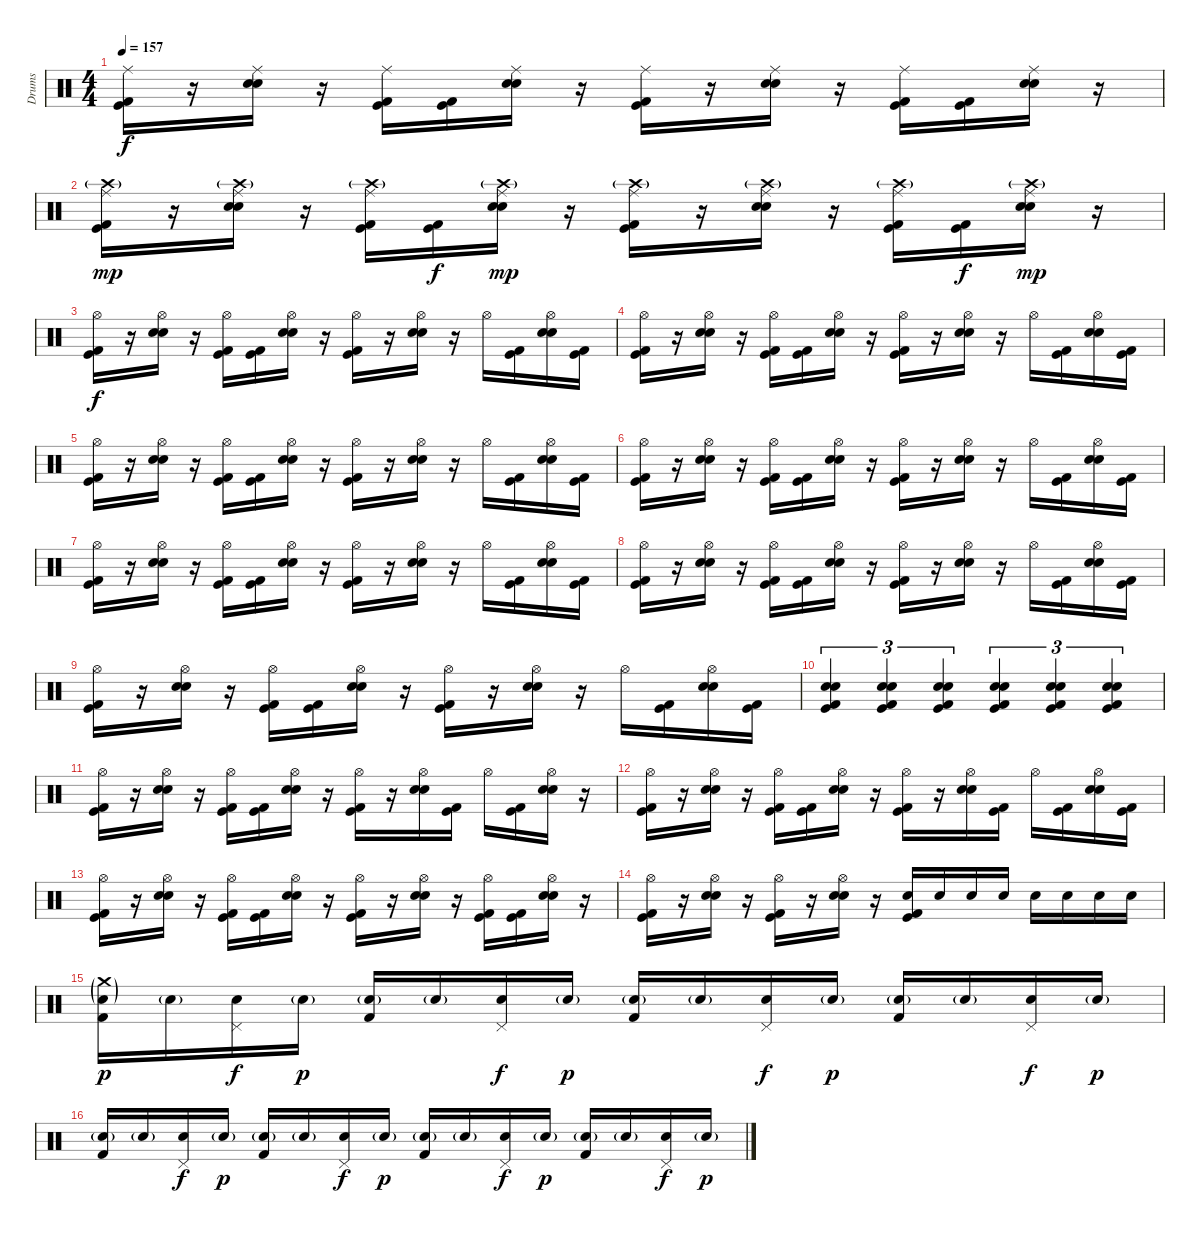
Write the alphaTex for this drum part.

\track ("Drums" "Drums") {instrument percussion}
\staff {score}
\articulation defaults
\ts (4 4)
\tempo 157
\clef neutral
\ks c
("Ride (middle)" "Kick (hit) 2" "Kick (hit)").16{dy f} r.16 ("Ride (middle)" "Electric Snare (hit)" "Snare (hit) 2").16 r.16 ("Ride (middle)" "Kick (hit) 2" "Kick (hit)").16 ("Kick (hit) 2" "Kick (hit)").16 ("Ride (middle)" "Electric Snare (hit)" "Snare (hit) 2").16 r.16 ("Ride (middle)" "Kick (hit) 2" "Kick (hit)").16 r.16 ("Ride (middle)" "Electric Snare (hit)" "Snare (hit) 2").16 r.16 ("Ride (middle)" "Kick (hit) 2" "Kick (hit)").16 ("Kick (hit) 2" "Kick (hit)").16 ("Ride (middle)" "Electric Snare (hit)" "Snare (hit) 2").16 r.16 |
("Ride (middle)" "Crash high (hit)"{g} "Kick (hit) 2" "Kick (hit)").16{dy mp} r.16 ("Ride (middle)" "Crash high (hit)"{g} "Electric Snare (hit)" "Snare (hit) 2").16 r.16 ("Ride (middle)" "Crash high (hit)"{g} "Kick (hit) 2" "Kick (hit)").16 ("Kick (hit) 2" "Kick (hit)").16{dy f} ("Ride (middle)" "Crash high (hit)"{g} "Electric Snare (hit)" "Snare (hit) 2").16{dy mp} r.16 ("Ride (middle)" "Crash high (hit)"{g} "Kick (hit) 2" "Kick (hit)").16 r.16 ("Ride (middle)" "Crash high (hit)"{g} "Electric Snare (hit)" "Snare (hit) 2").16 r.16 ("Ride (middle)" "Crash high (hit)"{g} "Kick (hit) 2" "Kick (hit)").16 ("Kick (hit) 2" "Kick (hit)").16{dy f} ("Ride (middle)" "Crash high (hit)"{g} "Electric Snare (hit)" "Snare (hit) 2").16{dy mp} r.16 |
("Hi-Hat (open)" "Kick (hit)" "Kick (hit) 2").16{dy f} r.16 ("Hi-Hat (open)" "Snare (hit) 2" "Electric Snare (hit)").16 r.16 ("Hi-Hat (open)" "Kick (hit)" "Kick (hit) 2").16 ("Kick (hit)" "Kick (hit) 2").16 ("Hi-Hat (open)" "Snare (hit) 2" "Electric Snare (hit)").16 r.16 ("Hi-Hat (open)" "Kick (hit)" "Kick (hit) 2").16 r.16 ("Hi-Hat (open)" "Snare (hit) 2" "Electric Snare (hit)").16 r.16 "Hi-Hat (open)".16 ("Kick (hit)" "Kick (hit) 2").16 ("Hi-Hat (open)" "Snare (hit) 2" "Electric Snare (hit)").16 ("Kick (hit)" "Kick (hit) 2").16 |
("Hi-Hat (open)" "Kick (hit)" "Kick (hit) 2").16 r.16 ("Hi-Hat (open)" "Snare (hit) 2" "Electric Snare (hit)").16 r.16 ("Hi-Hat (open)" "Kick (hit)" "Kick (hit) 2").16 ("Kick (hit)" "Kick (hit) 2").16 ("Hi-Hat (open)" "Snare (hit) 2" "Electric Snare (hit)").16 r.16 ("Hi-Hat (open)" "Kick (hit)" "Kick (hit) 2").16 r.16 ("Hi-Hat (open)" "Snare (hit) 2" "Electric Snare (hit)").16 r.16 "Hi-Hat (open)".16 ("Kick (hit)" "Kick (hit) 2").16 ("Hi-Hat (open)" "Snare (hit) 2" "Electric Snare (hit)").16 ("Kick (hit)" "Kick (hit) 2").16 |
("Hi-Hat (open)" "Kick (hit)" "Kick (hit) 2").16 r.16 ("Hi-Hat (open)" "Snare (hit) 2" "Electric Snare (hit)").16 r.16 ("Hi-Hat (open)" "Kick (hit)" "Kick (hit) 2").16 ("Kick (hit)" "Kick (hit) 2").16 ("Hi-Hat (open)" "Snare (hit) 2" "Electric Snare (hit)").16 r.16 ("Hi-Hat (open)" "Kick (hit)" "Kick (hit) 2").16 r.16 ("Hi-Hat (open)" "Snare (hit) 2" "Electric Snare (hit)").16 r.16 "Hi-Hat (open)".16 ("Kick (hit)" "Kick (hit) 2").16 ("Hi-Hat (open)" "Snare (hit) 2" "Electric Snare (hit)").16 ("Kick (hit)" "Kick (hit) 2").16 |
("Hi-Hat (open)" "Kick (hit)" "Kick (hit) 2").16 r.16 ("Hi-Hat (open)" "Snare (hit) 2" "Electric Snare (hit)").16 r.16 ("Hi-Hat (open)" "Kick (hit)" "Kick (hit) 2").16 ("Kick (hit)" "Kick (hit) 2").16 ("Hi-Hat (open)" "Snare (hit) 2" "Electric Snare (hit)").16 r.16 ("Hi-Hat (open)" "Kick (hit)" "Kick (hit) 2").16 r.16 ("Hi-Hat (open)" "Snare (hit) 2" "Electric Snare (hit)").16 r.16 "Hi-Hat (open)".16 ("Kick (hit)" "Kick (hit) 2").16 ("Hi-Hat (open)" "Snare (hit) 2" "Electric Snare (hit)").16 ("Kick (hit)" "Kick (hit) 2").16 |
("Hi-Hat (open)" "Kick (hit)" "Kick (hit) 2").16 r.16 ("Hi-Hat (open)" "Snare (hit) 2" "Electric Snare (hit)").16 r.16 ("Hi-Hat (open)" "Kick (hit)" "Kick (hit) 2").16 ("Kick (hit)" "Kick (hit) 2").16 ("Hi-Hat (open)" "Snare (hit) 2" "Electric Snare (hit)").16 r.16 ("Hi-Hat (open)" "Kick (hit)" "Kick (hit) 2").16 r.16 ("Hi-Hat (open)" "Snare (hit) 2" "Electric Snare (hit)").16 r.16 "Hi-Hat (open)".16 ("Kick (hit)" "Kick (hit) 2").16 ("Hi-Hat (open)" "Snare (hit) 2" "Electric Snare (hit)").16 ("Kick (hit)" "Kick (hit) 2").16 |
("Hi-Hat (open)" "Kick (hit)" "Kick (hit) 2").16 r.16 ("Hi-Hat (open)" "Snare (hit) 2" "Electric Snare (hit)").16 r.16 ("Hi-Hat (open)" "Kick (hit)" "Kick (hit) 2").16 ("Kick (hit)" "Kick (hit) 2").16 ("Hi-Hat (open)" "Snare (hit) 2" "Electric Snare (hit)").16 r.16 ("Hi-Hat (open)" "Kick (hit)" "Kick (hit) 2").16 r.16 ("Hi-Hat (open)" "Snare (hit) 2" "Electric Snare (hit)").16 r.16 "Hi-Hat (open)".16 ("Kick (hit)" "Kick (hit) 2").16 ("Hi-Hat (open)" "Snare (hit) 2" "Electric Snare (hit)").16 ("Kick (hit)" "Kick (hit) 2").16 |
("Hi-Hat (open)" "Kick (hit)" "Kick (hit) 2").16 r.16 ("Hi-Hat (open)" "Snare (hit) 2" "Electric Snare (hit)").16 r.16 ("Hi-Hat (open)" "Kick (hit)" "Kick (hit) 2").16 ("Kick (hit)" "Kick (hit) 2").16 ("Hi-Hat (open)" "Snare (hit) 2" "Electric Snare (hit)").16 r.16 ("Hi-Hat (open)" "Kick (hit)" "Kick (hit) 2").16 r.16 ("Hi-Hat (open)" "Snare (hit) 2" "Electric Snare (hit)").16 r.16 "Hi-Hat (open)".16 ("Kick (hit)" "Kick (hit) 2").16 ("Hi-Hat (open)" "Snare (hit) 2" "Electric Snare (hit)").16 ("Kick (hit)" "Kick (hit) 2").16 |
("Snare (hit) 2" "Electric Snare (hit)" "Kick (hit)" "Kick (hit) 2").4{tu (3 2)} ("Snare (hit) 2" "Electric Snare (hit)" "Kick (hit)" "Kick (hit) 2").4{tu (3 2)} ("Snare (hit) 2" "Electric Snare (hit)" "Kick (hit)" "Kick (hit) 2").4{tu (3 2)} ("Snare (hit) 2" "Electric Snare (hit)" "Kick (hit)" "Kick (hit) 2").4{tu (3 2)} ("Snare (hit) 2" "Electric Snare (hit)" "Kick (hit)" "Kick (hit) 2").4{tu (3 2)} ("Snare (hit) 2" "Electric Snare (hit)" "Kick (hit)" "Kick (hit) 2").4{tu (3 2)} |
("Hi-Hat (open)" "Kick (hit)" "Kick (hit) 2").16 r.16 ("Hi-Hat (open)" "Snare (hit) 2" "Electric Snare (hit)").16 r.16 ("Hi-Hat (open)" "Kick (hit)" "Kick (hit) 2").16 ("Kick (hit)" "Kick (hit) 2").16 ("Hi-Hat (open)" "Snare (hit) 2" "Electric Snare (hit)").16 r.16 ("Hi-Hat (open)" "Kick (hit)" "Kick (hit) 2").16 r.16 ("Hi-Hat (open)" "Snare (hit) 2" "Electric Snare (hit)").16 ("Kick (hit)" "Kick (hit) 2").16 "Hi-Hat (open)".16 ("Kick (hit)" "Kick (hit) 2").16 ("Hi-Hat (open)" "Snare (hit) 2" "Electric Snare (hit)").16 r.16 |
("Hi-Hat (open)" "Kick (hit)" "Kick (hit) 2").16 r.16 ("Hi-Hat (open)" "Snare (hit) 2" "Electric Snare (hit)").16 r.16 ("Hi-Hat (open)" "Kick (hit)" "Kick (hit) 2").16 ("Kick (hit)" "Kick (hit) 2").16 ("Hi-Hat (open)" "Snare (hit) 2" "Electric Snare (hit)").16 r.16 ("Hi-Hat (open)" "Kick (hit)" "Kick (hit) 2").16 r.16 ("Hi-Hat (open)" "Snare (hit) 2" "Electric Snare (hit)").16 ("Kick (hit)" "Kick (hit) 2").16 "Hi-Hat (open)".16 ("Kick (hit)" "Kick (hit) 2").16 ("Hi-Hat (open)" "Snare (hit) 2" "Electric Snare (hit)").16 ("Kick (hit)" "Kick (hit) 2").16 |
("Hi-Hat (open)" "Kick (hit)" "Kick (hit) 2").16 r.16 ("Hi-Hat (open)" "Snare (hit) 2" "Electric Snare (hit)").16 r.16 ("Hi-Hat (open)" "Kick (hit)" "Kick (hit) 2").16 ("Kick (hit)" "Kick (hit) 2").16 ("Hi-Hat (open)" "Snare (hit) 2" "Electric Snare (hit)").16 r.16 ("Hi-Hat (open)" "Kick (hit)" "Kick (hit) 2").16 r.16 ("Hi-Hat (open)" "Snare (hit) 2" "Electric Snare (hit)").16 r.16 ("Hi-Hat (open)" "Kick (hit)" "Kick (hit) 2").16 ("Kick (hit)" "Kick (hit) 2").16 ("Hi-Hat (open)" "Snare (hit) 2" "Electric Snare (hit)").16 r.16 |
("Hi-Hat (open)" "Kick (hit)" "Kick (hit) 2").16 r.16 ("Hi-Hat (open)" "Snare (hit) 2" "Electric Snare (hit)").16 r.16 ("Hi-Hat (open)" "Kick (hit)" "Kick (hit) 2").16 r.16 ("Hi-Hat (open)" "Snare (hit) 2" "Electric Snare (hit)").16 r.16 ("Electric Snare (hit)" "Kick (hit) 2" "Kick (hit)").16 "Electric Snare (hit)".16 "Electric Snare (hit)".16 "Electric Snare (hit)".16 "Electric Snare (hit)".16 "Electric Snare (hit)".16 "Electric Snare (hit)".16 "Electric Snare (hit)".16 |
("Crash medium (hit)"{g} "Electric Snare (hit)"{g} "Kick (hit) 2").16{dy p} "Electric Snare (hit)"{g}.16 ("Pedal Hi-Hat (hit)" "Electric Snare (hit)").16{dy f} "Electric Snare (hit)"{g}.16{dy p} ("Electric Snare (hit)"{g} "Kick (hit) 2").16 "Electric Snare (hit)"{g}.16 ("Pedal Hi-Hat (hit)" "Electric Snare (hit)").16{dy f} "Electric Snare (hit)"{g}.16{dy p} ("Electric Snare (hit)"{g} "Kick (hit) 2").16 "Electric Snare (hit)"{g}.16 ("Pedal Hi-Hat (hit)" "Electric Snare (hit)").16{dy f} "Electric Snare (hit)"{g}.16{dy p} ("Electric Snare (hit)"{g} "Kick (hit) 2").16 "Electric Snare (hit)"{g}.16 ("Pedal Hi-Hat (hit)" "Electric Snare (hit)").16{dy f} "Electric Snare (hit)"{g}.16{dy p} |
("Electric Snare (hit)"{g} "Kick (hit) 2").16 "Electric Snare (hit)"{g}.16 ("Pedal Hi-Hat (hit)" "Electric Snare (hit)").16{dy f} "Electric Snare (hit)"{g}.16{dy p} ("Electric Snare (hit)"{g} "Kick (hit) 2").16 "Electric Snare (hit)"{g}.16 ("Pedal Hi-Hat (hit)" "Electric Snare (hit)").16{dy f} "Electric Snare (hit)"{g}.16{dy p} ("Electric Snare (hit)"{g} "Kick (hit) 2").16 "Electric Snare (hit)"{g}.16 ("Pedal Hi-Hat (hit)" "Electric Snare (hit)").16{dy f} "Electric Snare (hit)"{g}.16{dy p} ("Electric Snare (hit)"{g} "Kick (hit) 2").16 "Electric Snare (hit)"{g}.16 ("Pedal Hi-Hat (hit)" "Electric Snare (hit)").16{dy f} "Electric Snare (hit)"{g}.16{dy p}
